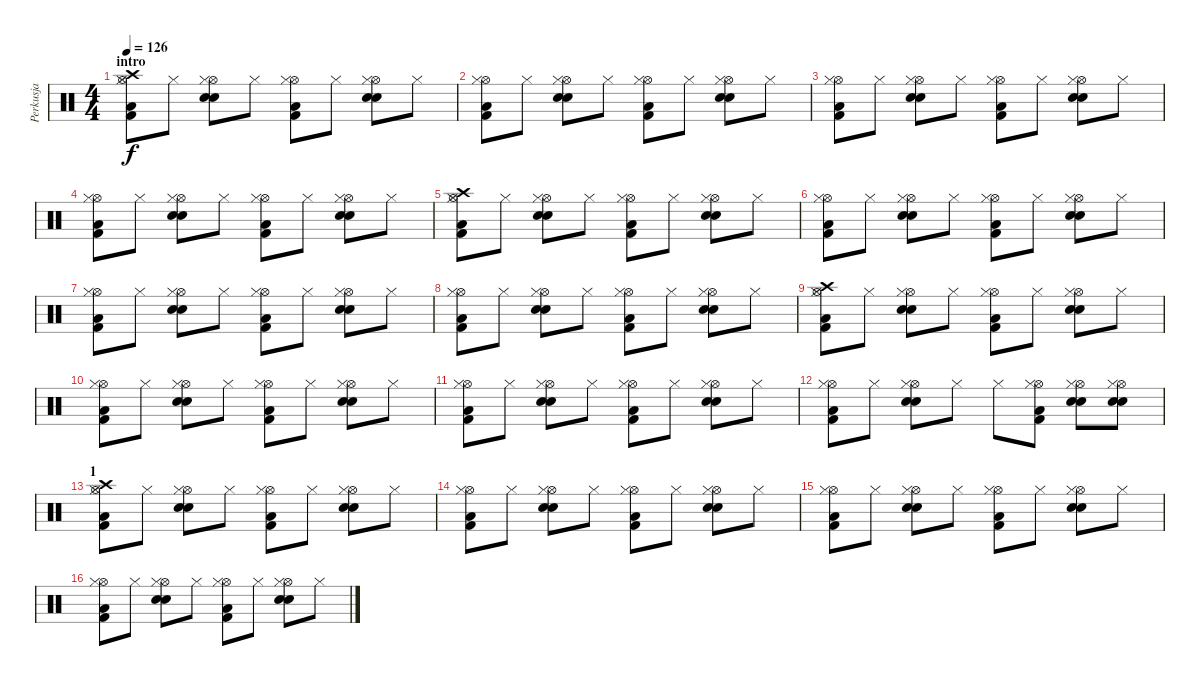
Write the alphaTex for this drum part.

\track ("Perkusja" "Perkusja") {instrument percussion}
\staff {score}
\articulation defaults
\ts (4 4)
\section ("" "intro")
\tempo 126
\clef neutral
\ks c
("Hi-Hat (open)" "Kick (hit) 2" "Crash high (hit)" "Hi-Hat (closed)" "Low Tom (hit)").8{dy f} "Hi-Hat (closed)".8 ("Hi-Hat (open)" "Snare (hit) 2" "Hi-Hat (closed)" "Electric Snare (hit)").8 "Hi-Hat (closed)".8 ("Hi-Hat (open)" "Kick (hit) 2" "Hi-Hat (closed)" "Low Tom (hit)").8 "Hi-Hat (closed)".8 ("Hi-Hat (open)" "Snare (hit) 2" "Hi-Hat (closed)" "Electric Snare (hit)").8 "Hi-Hat (closed)".8 |
("Hi-Hat (open)" "Kick (hit) 2" "Hi-Hat (closed)" "Low Tom (hit)").8 "Hi-Hat (closed)".8 ("Hi-Hat (open)" "Snare (hit) 2" "Hi-Hat (closed)" "Electric Snare (hit)").8 "Hi-Hat (closed)".8 ("Hi-Hat (open)" "Kick (hit) 2" "Hi-Hat (closed)" "Low Tom (hit)").8 "Hi-Hat (closed)".8 ("Hi-Hat (open)" "Snare (hit) 2" "Hi-Hat (closed)" "Electric Snare (hit)").8 "Hi-Hat (closed)".8 |
("Hi-Hat (open)" "Kick (hit) 2" "Hi-Hat (closed)" "Low Tom (hit)").8 "Hi-Hat (closed)".8 ("Hi-Hat (open)" "Snare (hit) 2" "Hi-Hat (closed)" "Electric Snare (hit)").8 "Hi-Hat (closed)".8 ("Hi-Hat (open)" "Kick (hit) 2" "Hi-Hat (closed)" "Low Tom (hit)").8 "Hi-Hat (closed)".8 ("Hi-Hat (open)" "Snare (hit) 2" "Hi-Hat (closed)" "Electric Snare (hit)").8 "Hi-Hat (closed)".8 |
("Hi-Hat (open)" "Kick (hit) 2" "Hi-Hat (closed)" "Low Tom (hit)").8 "Hi-Hat (closed)".8 ("Hi-Hat (open)" "Snare (hit) 2" "Hi-Hat (closed)" "Electric Snare (hit)").8 "Hi-Hat (closed)".8 ("Hi-Hat (open)" "Kick (hit) 2" "Hi-Hat (closed)" "Low Tom (hit)").8 "Hi-Hat (closed)".8 ("Hi-Hat (open)" "Snare (hit) 2" "Hi-Hat (closed)" "Electric Snare (hit)").8 "Hi-Hat (closed)".8 |
("Hi-Hat (open)" "Kick (hit) 2" "Crash high (hit)" "Hi-Hat (closed)" "Low Tom (hit)").8 "Hi-Hat (closed)".8 ("Hi-Hat (open)" "Snare (hit) 2" "Hi-Hat (closed)" "Electric Snare (hit)").8 "Hi-Hat (closed)".8 ("Hi-Hat (open)" "Kick (hit) 2" "Hi-Hat (closed)" "Low Tom (hit)").8 "Hi-Hat (closed)".8 ("Hi-Hat (open)" "Snare (hit) 2" "Hi-Hat (closed)" "Electric Snare (hit)").8 "Hi-Hat (closed)".8 |
("Hi-Hat (open)" "Kick (hit) 2" "Hi-Hat (closed)" "Low Tom (hit)").8 "Hi-Hat (closed)".8 ("Hi-Hat (open)" "Snare (hit) 2" "Hi-Hat (closed)" "Electric Snare (hit)").8 "Hi-Hat (closed)".8 ("Hi-Hat (open)" "Kick (hit) 2" "Hi-Hat (closed)" "Low Tom (hit)").8 "Hi-Hat (closed)".8 ("Hi-Hat (open)" "Snare (hit) 2" "Hi-Hat (closed)" "Electric Snare (hit)").8 "Hi-Hat (closed)".8 |
("Hi-Hat (open)" "Kick (hit) 2" "Hi-Hat (closed)" "Low Tom (hit)").8 "Hi-Hat (closed)".8 ("Hi-Hat (open)" "Snare (hit) 2" "Hi-Hat (closed)" "Electric Snare (hit)").8 "Hi-Hat (closed)".8 ("Hi-Hat (open)" "Kick (hit) 2" "Hi-Hat (closed)" "Low Tom (hit)").8 "Hi-Hat (closed)".8 ("Hi-Hat (open)" "Snare (hit) 2" "Hi-Hat (closed)" "Electric Snare (hit)").8 "Hi-Hat (closed)".8 |
("Hi-Hat (open)" "Kick (hit) 2" "Hi-Hat (closed)" "Low Tom (hit)").8 "Hi-Hat (closed)".8 ("Hi-Hat (open)" "Snare (hit) 2" "Hi-Hat (closed)" "Electric Snare (hit)").8 "Hi-Hat (closed)".8 ("Hi-Hat (open)" "Kick (hit) 2" "Hi-Hat (closed)" "Low Tom (hit)").8 "Hi-Hat (closed)".8 ("Hi-Hat (open)" "Snare (hit) 2" "Hi-Hat (closed)" "Electric Snare (hit)").8 "Hi-Hat (closed)".8 |
("Hi-Hat (open)" "Kick (hit) 2" "Crash high (hit)" "Hi-Hat (closed)" "Low Tom (hit)").8 "Hi-Hat (closed)".8 ("Hi-Hat (open)" "Snare (hit) 2" "Hi-Hat (closed)" "Electric Snare (hit)").8 "Hi-Hat (closed)".8 ("Hi-Hat (open)" "Kick (hit) 2" "Hi-Hat (closed)" "Low Tom (hit)").8 "Hi-Hat (closed)".8 ("Hi-Hat (open)" "Snare (hit) 2" "Hi-Hat (closed)" "Electric Snare (hit)").8 "Hi-Hat (closed)".8 |
("Hi-Hat (open)" "Kick (hit) 2" "Hi-Hat (closed)" "Low Tom (hit)").8 "Hi-Hat (closed)".8 ("Hi-Hat (open)" "Snare (hit) 2" "Hi-Hat (closed)" "Electric Snare (hit)").8 "Hi-Hat (closed)".8 ("Hi-Hat (open)" "Kick (hit) 2" "Hi-Hat (closed)" "Low Tom (hit)").8 "Hi-Hat (closed)".8 ("Hi-Hat (open)" "Snare (hit) 2" "Hi-Hat (closed)" "Electric Snare (hit)").8 "Hi-Hat (closed)".8 |
("Hi-Hat (open)" "Kick (hit) 2" "Hi-Hat (closed)" "Low Tom (hit)").8 "Hi-Hat (closed)".8 ("Hi-Hat (open)" "Snare (hit) 2" "Hi-Hat (closed)" "Electric Snare (hit)").8 "Hi-Hat (closed)".8 ("Hi-Hat (open)" "Kick (hit) 2" "Hi-Hat (closed)" "Low Tom (hit)").8 "Hi-Hat (closed)".8 ("Hi-Hat (open)" "Snare (hit) 2" "Hi-Hat (closed)" "Electric Snare (hit)").8 "Hi-Hat (closed)".8 |
("Hi-Hat (open)" "Kick (hit) 2" "Hi-Hat (closed)" "Low Tom (hit)").8 "Hi-Hat (closed)".8 ("Hi-Hat (open)" "Snare (hit) 2" "Hi-Hat (closed)" "Electric Snare (hit)").8 "Hi-Hat (closed)".8 "Hi-Hat (closed)".8 ("Hi-Hat (open)" "Kick (hit) 2" "Hi-Hat (closed)" "Low Tom (hit)").8 ("Hi-Hat (open)" "Snare (hit) 2" "Hi-Hat (closed)" "Electric Snare (hit)").8 ("Hi-Hat (open)" "Snare (hit) 2" "Hi-Hat (closed)" "Electric Snare (hit)").8 |
\section ("" "1")
("Hi-Hat (open)" "Kick (hit) 2" "Crash high (hit)" "Hi-Hat (closed)" "Low Tom (hit)").8 "Hi-Hat (closed)".8 ("Hi-Hat (open)" "Snare (hit) 2" "Hi-Hat (closed)" "Electric Snare (hit)").8 "Hi-Hat (closed)".8 ("Hi-Hat (open)" "Kick (hit) 2" "Hi-Hat (closed)" "Low Tom (hit)").8 "Hi-Hat (closed)".8 ("Hi-Hat (open)" "Snare (hit) 2" "Hi-Hat (closed)" "Electric Snare (hit)").8 "Hi-Hat (closed)".8 |
("Hi-Hat (open)" "Kick (hit) 2" "Hi-Hat (closed)" "Low Tom (hit)").8 "Hi-Hat (closed)".8 ("Hi-Hat (open)" "Snare (hit) 2" "Hi-Hat (closed)" "Electric Snare (hit)").8 "Hi-Hat (closed)".8 ("Hi-Hat (open)" "Kick (hit) 2" "Hi-Hat (closed)" "Low Tom (hit)").8 "Hi-Hat (closed)".8 ("Hi-Hat (open)" "Snare (hit) 2" "Hi-Hat (closed)" "Electric Snare (hit)").8 "Hi-Hat (closed)".8 |
("Hi-Hat (open)" "Kick (hit) 2" "Hi-Hat (closed)" "Low Tom (hit)").8 "Hi-Hat (closed)".8 ("Hi-Hat (open)" "Snare (hit) 2" "Hi-Hat (closed)" "Electric Snare (hit)").8 "Hi-Hat (closed)".8 ("Hi-Hat (open)" "Kick (hit) 2" "Hi-Hat (closed)" "Low Tom (hit)").8 "Hi-Hat (closed)".8 ("Hi-Hat (open)" "Snare (hit) 2" "Hi-Hat (closed)" "Electric Snare (hit)").8 "Hi-Hat (closed)".8 |
("Hi-Hat (open)" "Kick (hit) 2" "Hi-Hat (closed)" "Low Tom (hit)").8 "Hi-Hat (closed)".8 ("Hi-Hat (open)" "Snare (hit) 2" "Hi-Hat (closed)" "Electric Snare (hit)").8 "Hi-Hat (closed)".8 ("Hi-Hat (open)" "Kick (hit) 2" "Hi-Hat (closed)" "Low Tom (hit)").8 "Hi-Hat (closed)".8 ("Hi-Hat (open)" "Snare (hit) 2" "Hi-Hat (closed)" "Electric Snare (hit)").8 "Hi-Hat (closed)".8
